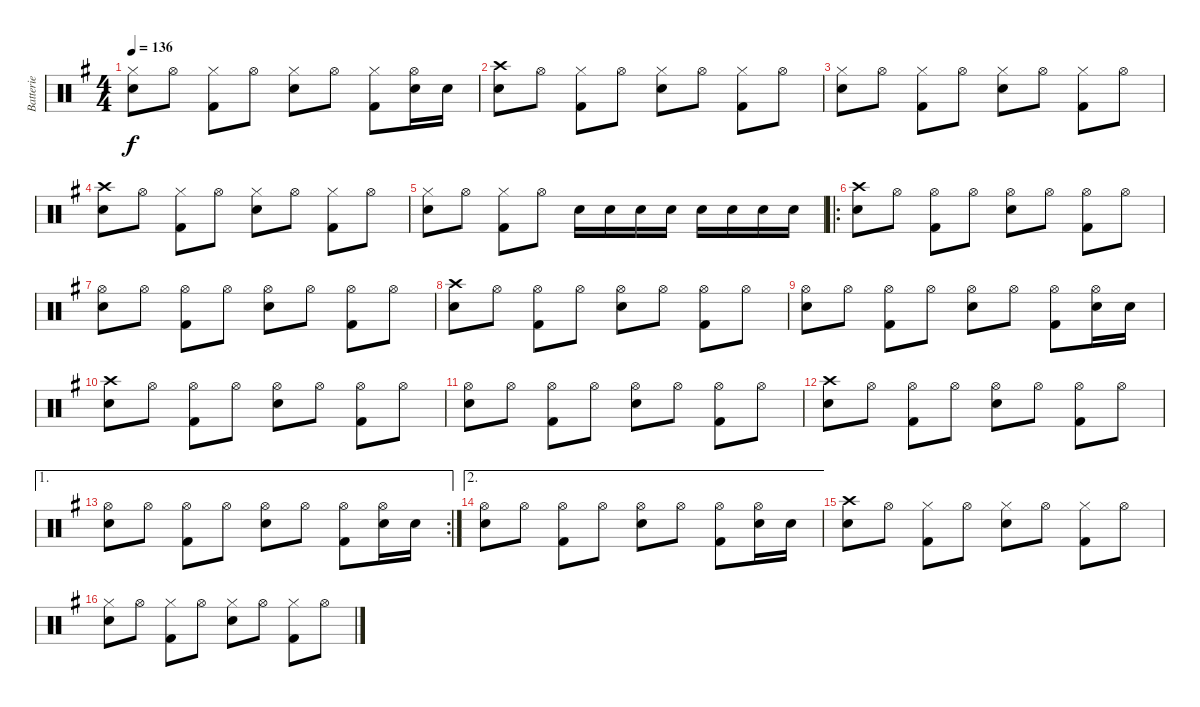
\track ("Batterie" "Batterie") {instrument percussion}
\staff {score}
\articulation defaults
\ts (4 4)
\tempo 136
\clef neutral
\ks g
("Hi-Hat (closed)" "Snare (hit) 2").8{dy f} "Hi-Hat (open)".8 ("Hi-Hat (closed)" "Kick (hit) 2").8 "Hi-Hat (open)".8 ("Hi-Hat (closed)" "Snare (hit) 2").8 "Hi-Hat (open)".8 ("Hi-Hat (closed)" "Kick (hit) 2").8 ("Hi-Hat (open)" "Snare (hit) 2").16 "Snare (hit) 2".16 |
("Crash high (hit)" "Snare (hit) 2").8 "Hi-Hat (open)".8 ("Hi-Hat (closed)" "Kick (hit) 2").8 "Hi-Hat (open)".8 ("Hi-Hat (closed)" "Snare (hit) 2").8 "Hi-Hat (open)".8 ("Hi-Hat (closed)" "Kick (hit) 2").8 "Hi-Hat (open)".8 |
("Hi-Hat (closed)" "Snare (hit) 2").8 "Hi-Hat (open)".8 ("Hi-Hat (closed)" "Kick (hit) 2").8 "Hi-Hat (open)".8 ("Hi-Hat (closed)" "Snare (hit) 2").8 "Hi-Hat (open)".8 ("Hi-Hat (closed)" "Kick (hit) 2").8 "Hi-Hat (open)".8 |
("Crash high (hit)" "Snare (hit) 2").8 "Hi-Hat (open)".8 ("Hi-Hat (closed)" "Kick (hit) 2").8 "Hi-Hat (open)".8 ("Hi-Hat (closed)" "Snare (hit) 2").8 "Hi-Hat (open)".8 ("Hi-Hat (closed)" "Kick (hit) 2").8 "Hi-Hat (open)".8 |
("Hi-Hat (closed)" "Snare (hit) 2").8 "Hi-Hat (open)".8 ("Hi-Hat (closed)" "Kick (hit) 2").8 "Hi-Hat (open)".8 "Snare (hit) 2".16 "Snare (hit) 2".16 "Snare (hit) 2".16 "Snare (hit) 2".16 "Snare (hit) 2".16 "Snare (hit) 2".16 "Snare (hit) 2".16 "Snare (hit) 2".16 |
\ro
("Crash high (hit)" "Snare (hit) 2").8 "Hi-Hat (open)".8 ("Hi-Hat (open)" "Kick (hit) 2").8 "Hi-Hat (open)".8 ("Hi-Hat (open)" "Snare (hit) 2").8 "Hi-Hat (open)".8 ("Hi-Hat (open)" "Kick (hit) 2").8 "Hi-Hat (open)".8 |
("Hi-Hat (open)" "Snare (hit) 2").8 "Hi-Hat (open)".8 ("Hi-Hat (open)" "Kick (hit) 2").8 "Hi-Hat (open)".8 ("Hi-Hat (open)" "Snare (hit) 2").8 "Hi-Hat (open)".8 ("Hi-Hat (open)" "Kick (hit) 2").8 "Hi-Hat (open)".8 |
("Crash high (hit)" "Snare (hit) 2").8 "Hi-Hat (open)".8 ("Hi-Hat (open)" "Kick (hit) 2").8 "Hi-Hat (open)".8 ("Hi-Hat (open)" "Snare (hit) 2").8 "Hi-Hat (open)".8 ("Hi-Hat (open)" "Kick (hit) 2").8 "Hi-Hat (open)".8 |
("Hi-Hat (open)" "Snare (hit) 2").8 "Hi-Hat (open)".8 ("Hi-Hat (open)" "Kick (hit) 2").8 "Hi-Hat (open)".8 ("Hi-Hat (open)" "Snare (hit) 2").8 "Hi-Hat (open)".8 ("Hi-Hat (open)" "Kick (hit) 2").8 ("Hi-Hat (open)" "Snare (hit) 2").16 "Snare (hit) 2".16 |
("Crash high (hit)" "Snare (hit) 2").8 "Hi-Hat (open)".8 ("Hi-Hat (open)" "Kick (hit) 2").8 "Hi-Hat (open)".8 ("Hi-Hat (open)" "Snare (hit) 2").8 "Hi-Hat (open)".8 ("Hi-Hat (open)" "Kick (hit) 2").8 "Hi-Hat (open)".8 |
("Hi-Hat (open)" "Snare (hit) 2").8 "Hi-Hat (open)".8 ("Hi-Hat (open)" "Kick (hit) 2").8 "Hi-Hat (open)".8 ("Hi-Hat (open)" "Snare (hit) 2").8 "Hi-Hat (open)".8 ("Hi-Hat (open)" "Kick (hit) 2").8 "Hi-Hat (open)".8 |
("Crash high (hit)" "Snare (hit) 2").8 "Hi-Hat (open)".8 ("Hi-Hat (open)" "Kick (hit) 2").8 "Hi-Hat (open)".8 ("Hi-Hat (open)" "Snare (hit) 2").8 "Hi-Hat (open)".8 ("Hi-Hat (open)" "Kick (hit) 2").8 "Hi-Hat (open)".8 |
\ae 1
\rc 2
("Hi-Hat (open)" "Snare (hit) 2").8 "Hi-Hat (open)".8 ("Hi-Hat (open)" "Kick (hit) 2").8 "Hi-Hat (open)".8 ("Hi-Hat (open)" "Snare (hit) 2").8 "Hi-Hat (open)".8 ("Hi-Hat (open)" "Kick (hit) 2").8 ("Hi-Hat (open)" "Snare (hit) 2").16 "Snare (hit) 2".16 |
\ae 2
("Hi-Hat (open)" "Snare (hit) 2").8 "Hi-Hat (open)".8 ("Hi-Hat (open)" "Kick (hit) 2").8 "Hi-Hat (open)".8 ("Hi-Hat (open)" "Snare (hit) 2").8 "Hi-Hat (open)".8 ("Hi-Hat (open)" "Kick (hit) 2").8 ("Hi-Hat (open)" "Snare (hit) 2").16 "Snare (hit) 2".16 |
("Crash high (hit)" "Snare (hit) 2").8 "Hi-Hat (open)".8 ("Hi-Hat (closed)" "Kick (hit) 2").8 "Hi-Hat (open)".8 ("Hi-Hat (closed)" "Snare (hit) 2").8 "Hi-Hat (open)".8 ("Hi-Hat (closed)" "Kick (hit) 2").8 "Hi-Hat (open)".8 |
("Hi-Hat (closed)" "Snare (hit) 2").8 "Hi-Hat (open)".8 ("Hi-Hat (closed)" "Kick (hit) 2").8 "Hi-Hat (open)".8 ("Hi-Hat (closed)" "Snare (hit) 2").8 "Hi-Hat (open)".8 ("Hi-Hat (closed)" "Kick (hit) 2").8 "Hi-Hat (open)".8
